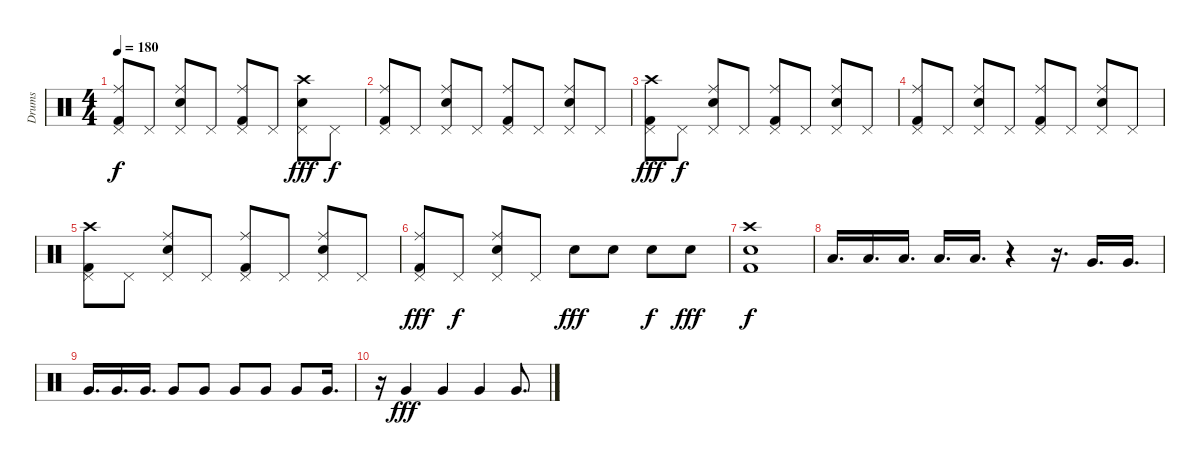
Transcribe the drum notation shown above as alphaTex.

\track ("Drums" "Drums") {instrument percussion}
\staff {score}
\articulation defaults
\ts (4 4)
\tempo 180
\clef neutral
\ks c
("Ride (middle)" "Pedal Hi-Hat (hit)" "Kick (hit) 2").8{dy f} "Pedal Hi-Hat (hit)".8 ("Ride (middle)" "Pedal Hi-Hat (hit)" "Electric Snare (hit)").8 "Pedal Hi-Hat (hit)".8 ("Ride (middle)" "Pedal Hi-Hat (hit)" "Kick (hit) 2").8 "Pedal Hi-Hat (hit)".8 ("Crash high (hit)" "Pedal Hi-Hat (hit)" "Electric Snare (hit)").8{dy fff} "Pedal Hi-Hat (hit)".8{dy f} |
("Ride (middle)" "Pedal Hi-Hat (hit)" "Kick (hit) 2").8 "Pedal Hi-Hat (hit)".8 ("Ride (middle)" "Pedal Hi-Hat (hit)" "Electric Snare (hit)").8 "Pedal Hi-Hat (hit)".8 ("Ride (middle)" "Pedal Hi-Hat (hit)" "Kick (hit) 2").8 "Pedal Hi-Hat (hit)".8 ("Ride (middle)" "Pedal Hi-Hat (hit)" "Electric Snare (hit)").8 "Pedal Hi-Hat (hit)".8 |
("Crash high (hit)" "Pedal Hi-Hat (hit)" "Kick (hit) 2").8{dy fff} "Pedal Hi-Hat (hit)".8{dy f} ("Ride (middle)" "Pedal Hi-Hat (hit)" "Electric Snare (hit)").8 "Pedal Hi-Hat (hit)".8 ("Ride (middle)" "Pedal Hi-Hat (hit)" "Kick (hit) 2").8 "Pedal Hi-Hat (hit)".8 ("Ride (middle)" "Pedal Hi-Hat (hit)" "Electric Snare (hit)").8 "Pedal Hi-Hat (hit)".8 |
("Ride (middle)" "Pedal Hi-Hat (hit)" "Kick (hit) 2").8 "Pedal Hi-Hat (hit)".8 ("Ride (middle)" "Pedal Hi-Hat (hit)" "Electric Snare (hit)").8 "Pedal Hi-Hat (hit)".8 ("Ride (middle)" "Pedal Hi-Hat (hit)" "Kick (hit) 2").8 "Pedal Hi-Hat (hit)".8 ("Ride (middle)" "Pedal Hi-Hat (hit)" "Electric Snare (hit)").8 "Pedal Hi-Hat (hit)".8 |
("Crash high (hit)" "Pedal Hi-Hat (hit)" "Kick (hit) 2").8 "Pedal Hi-Hat (hit)".8 ("Ride (middle)" "Pedal Hi-Hat (hit)" "Electric Snare (hit)").8 "Pedal Hi-Hat (hit)".8 ("Ride (middle)" "Pedal Hi-Hat (hit)" "Kick (hit) 2").8 "Pedal Hi-Hat (hit)".8 ("Ride (middle)" "Pedal Hi-Hat (hit)" "Electric Snare (hit)").8 "Pedal Hi-Hat (hit)".8 |
("Ride (middle)" "Pedal Hi-Hat (hit)" "Kick (hit) 2").8{dy fff} "Pedal Hi-Hat (hit)".8{dy f} ("Ride (middle)" "Pedal Hi-Hat (hit)" "Electric Snare (hit)").8 "Pedal Hi-Hat (hit)".8 "Electric Snare (hit)".8{dy fff} "Electric Snare (hit)".8 "Electric Snare (hit)".8{dy f} "Electric Snare (hit)".8{dy fff} |
("Crash high (hit)" "Electric Snare (hit)" "Kick (hit) 2").1{dy f} |
"Low Tom (hit)".16{d} "Low Tom (hit)".16{d} "Low Tom (hit)".16{d} "Low Tom (hit)".16{d} "Low Tom (hit)".16{d} r.4 r.16{d} "Very Low Tom (hit)".16{d} "Very Low Tom (hit)".16{d} |
"Very Low Tom (hit)".16{d} "Very Low Tom (hit)".16{d} "Very Low Tom (hit)".16{d} "Very Low Tom (hit)".8 "Very Low Tom (hit)".8 "Very Low Tom (hit)".8 "Very Low Tom (hit)".8 "Very Low Tom (hit)".8 "Very Low Tom (hit)".16{d} |
r.16 "Very Low Tom (hit)".4{dy fff} "Very Low Tom (hit)".4 "Very Low Tom (hit)".4 "Very Low Tom (hit)".8{d}
